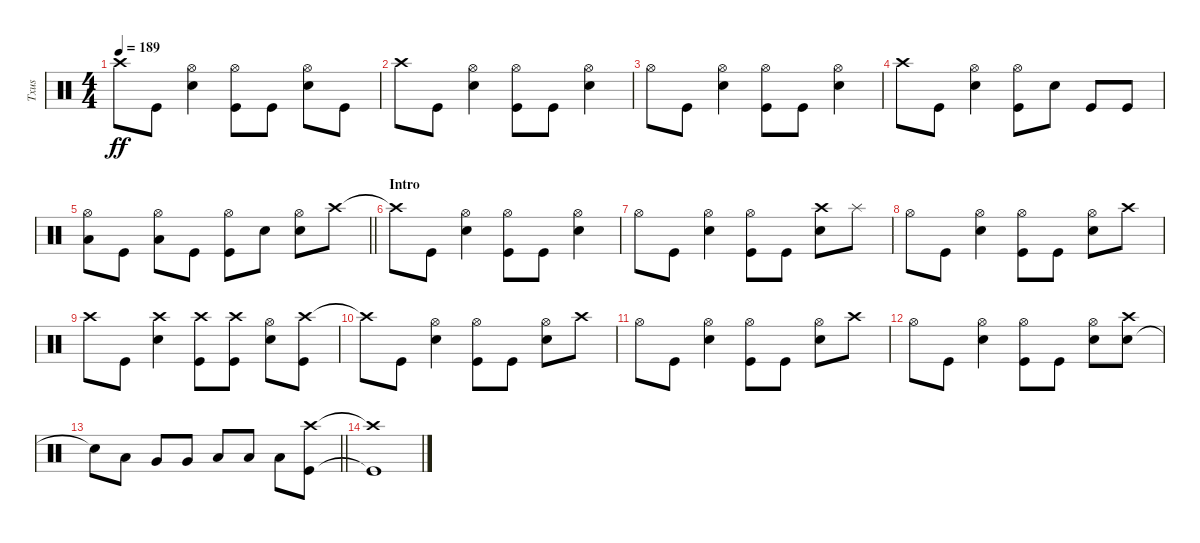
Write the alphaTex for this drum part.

\track ("Txus" "Txus") {instrument percussion}
\staff {score}
\articulation defaults
\ts (4 4)
\tempo 189
\clef neutral
\ks c "Crash high (hit)".8{dy ff} "Kick (hit)".8
("Snare (hit) 2" "Hi-Hat (open)").4 ("Kick (hit)" "Hi-Hat (open)").8 "Kick (hit)".8 ("Snare (hit) 2" "Hi-Hat (open)").8 "Kick (hit)".8 |
"Crash high (hit)".8 "Kick (hit)".8 ("Snare (hit) 2" "Hi-Hat (open)").4 ("Kick (hit)" "Hi-Hat (open)").8 "Kick (hit)".8 ("Snare (hit) 2" "Hi-Hat (open)").4 |
"Hi-Hat (open)".8 "Kick (hit)".8 ("Snare (hit) 2" "Hi-Hat (open)").4 ("Kick (hit)" "Hi-Hat (open)").8 "Kick (hit)".8 ("Snare (hit) 2" "Hi-Hat (open)").4 |
"Crash high (hit)".8 "Kick (hit)".8 ("Snare (hit) 2" "Hi-Hat (open)").4 ("Kick (hit)" "Hi-Hat (open)").8 "Snare (hit) 2".8 "Kick (hit)".8 "Kick (hit)".8 |
\barLineRight lightlight
("Low Tom (hit)" "Hi-Hat (open)").8 "Kick (hit)".8 ("Low Tom (hit)" "Hi-Hat (open)").8 "Kick (hit)".8 ("Kick (hit)" "Hi-Hat (open)").8 "Snare (hit) 2".8 ("Snare (hit) 2" "Hi-Hat (open)").8 "Crash high (hit)".8 |
\section ("" "Intro")
"Crash high (hit)"{t}.8 "Kick (hit)".8 ("Snare (hit) 2" "Hi-Hat (open)").4 ("Kick (hit)" "Hi-Hat (open)").8 "Kick (hit)".8 ("Snare (hit) 2" "Hi-Hat (open)").4 |
"Hi-Hat (open)".8 "Kick (hit)".8 ("Snare (hit) 2" "Hi-Hat (open)").4 ("Kick (hit)" "Hi-Hat (open)").8 "Kick (hit)".8 ("Snare (hit) 2" "Crash high (hit)").8 "Splash (hit)".8 |
"Hi-Hat (open)".8 "Kick (hit)".8 ("Snare (hit) 2" "Hi-Hat (open)").4 ("Kick (hit)" "Hi-Hat (open)").8 "Kick (hit)".8 ("Snare (hit) 2" "Hi-Hat (open)").8 "Crash high (hit)".8 |
"Crash high (hit)".8 "Kick (hit)".8 ("Snare (hit) 2" "Crash high (hit)").4 ("Kick (hit)" "Crash high (hit)").8 ("Kick (hit)" "Crash high (hit)").8 ("Snare (hit) 2" "Hi-Hat (open)").8 ("Crash high (hit)" "Kick (hit)").8 |
"Crash high (hit)"{t}.8 "Kick (hit)".8 ("Snare (hit) 2" "Hi-Hat (open)").4 ("Kick (hit)" "Hi-Hat (open)").8 "Kick (hit)".8 ("Snare (hit) 2" "Hi-Hat (open)").8 "Crash high (hit)".8 |
"Hi-Hat (open)".8 "Kick (hit)".8 ("Snare (hit) 2" "Hi-Hat (open)").4 ("Kick (hit)" "Hi-Hat (open)").8 "Kick (hit)".8 ("Snare (hit) 2" "Hi-Hat (open)").8 "Crash high (hit)".8 |
"Hi-Hat (open)".8 "Kick (hit)".8 ("Snare (hit) 2" "Hi-Hat (open)").4 ("Kick (hit)" "Hi-Hat (open)").8 "Kick (hit)".8 ("Snare (hit) 2" "Hi-Hat (open)").8 ("Snare (hit) 2" "Crash high (hit)").8 |
\barLineRight lightlight "Snare (hit) 2"{t}.8 "Low Tom (hit)".8 "Very Low Tom (hit)".8 "Very Low Tom (hit)".8 "Low Floor Tom (hit)".8 "Low Floor Tom (hit)".8 "Low Floor Tom (hit)".8
("Crash high (hit)" "Kick (hit)").8 |
("Crash high (hit)"{t} "Kick (hit)"{t}).1
